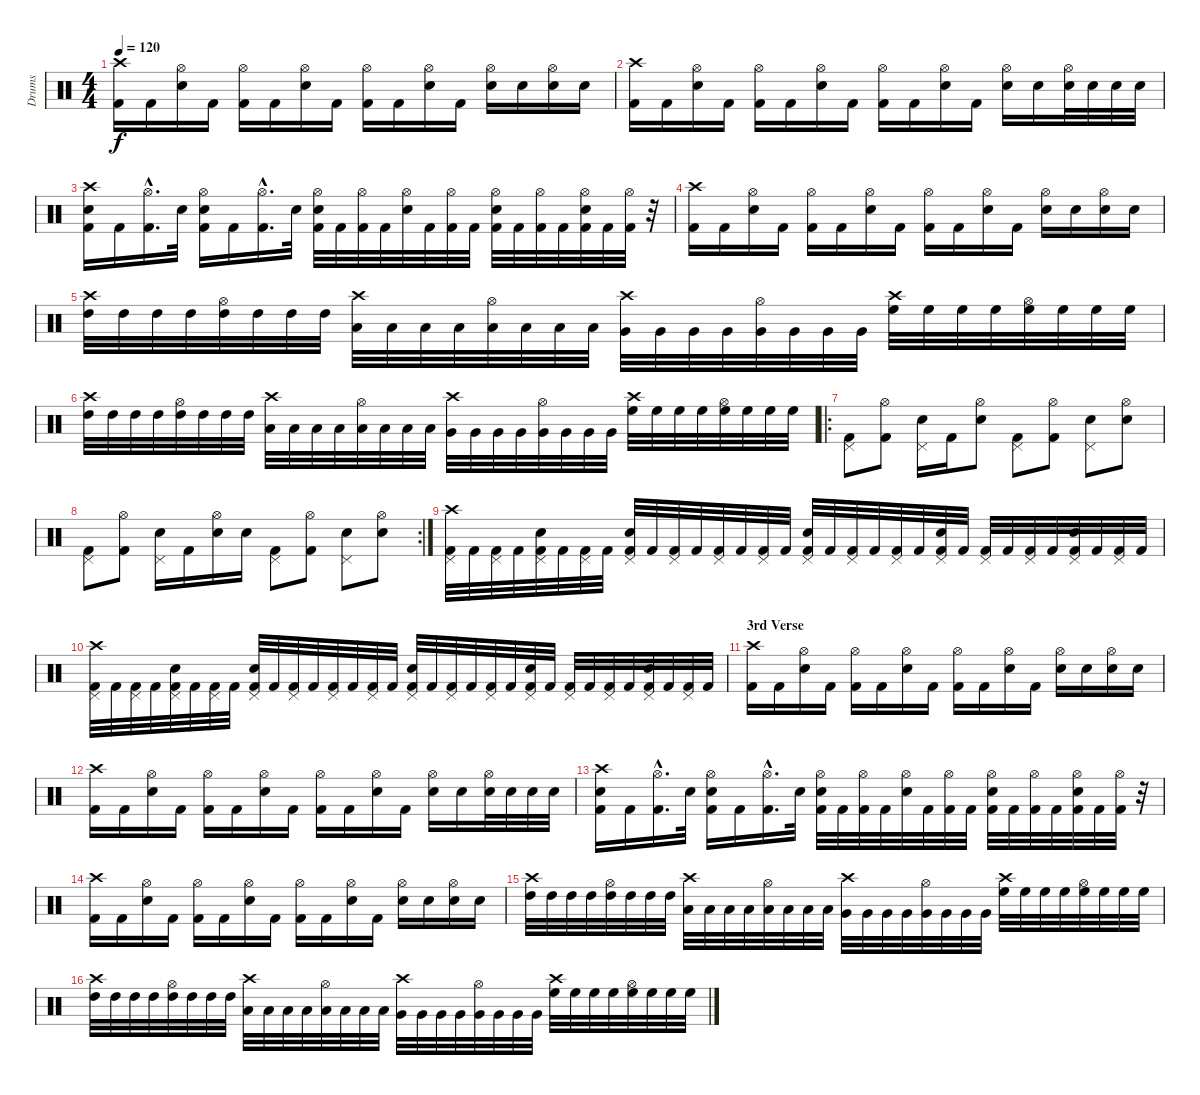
\track ("Drums" "Drums") {instrument percussion}
\staff {score}
\articulation defaults
\ts (4 4)
\tempo 120
\clef neutral
\ks c
("Crash high (hit)" "Kick (hit) 2").16{dy f} "Kick (hit) 2".16 ("Hi-Hat (open)" "Electric Snare (hit)").16 "Kick (hit) 2".16 ("Hi-Hat (open)" "Kick (hit) 2").16 "Kick (hit) 2".16 ("Hi-Hat (open)" "Electric Snare (hit)").16 "Kick (hit) 2".16 ("Hi-Hat (open)" "Kick (hit) 2").16 "Kick (hit) 2".16 ("Hi-Hat (open)" "Electric Snare (hit)").16 "Kick (hit) 2".16 ("Hi-Hat (open)" "Electric Snare (hit)").16 "Electric Snare (hit)".16 ("Hi-Hat (open)" "Electric Snare (hit)").16 "Electric Snare (hit)".16 |
("Crash high (hit)" "Kick (hit) 2").16 "Kick (hit) 2".16 ("Hi-Hat (open)" "Electric Snare (hit)").16 "Kick (hit) 2".16 ("Hi-Hat (open)" "Kick (hit) 2").16 "Kick (hit) 2".16 ("Hi-Hat (open)" "Electric Snare (hit)").16 "Kick (hit) 2".16 ("Hi-Hat (open)" "Kick (hit) 2").16 "Kick (hit) 2".16 ("Hi-Hat (open)" "Electric Snare (hit)").16 "Kick (hit) 2".16 ("Hi-Hat (open)" "Electric Snare (hit)").16 "Electric Snare (hit)".16 ("Hi-Hat (open)" "Electric Snare (hit)").32 "Electric Snare (hit)".32 "Electric Snare (hit)".32 "Electric Snare (hit)".32 |
("Crash high (hit)" "Electric Snare (hit)" "Kick (hit) 2").16 "Kick (hit) 2".16 ("Hi-Hat (open)"{hac} "Kick (hit) 2"{hac}).16{d} "Electric Snare (hit)".32 ("Hi-Hat (open)" "Electric Snare (hit)" "Kick (hit) 2").16 "Kick (hit) 2".16 ("Hi-Hat (open)"{hac} "Kick (hit) 2"{hac}).16{d} "Electric Snare (hit)".32 ("Hi-Hat (open)" "Electric Snare (hit)" "Kick (hit) 2").32 "Kick (hit) 2".32 ("Hi-Hat (open)" "Kick (hit) 2").32 "Kick (hit) 2".32 ("Hi-Hat (open)" "Electric Snare (hit)").32 "Kick (hit) 2".32 ("Hi-Hat (open)" "Kick (hit) 2").32 "Kick (hit) 2".32 ("Hi-Hat (open)" "Electric Snare (hit)" "Kick (hit) 2").32 "Kick (hit) 2".32 ("Hi-Hat (open)" "Kick (hit) 2").32 "Kick (hit) 2".32 ("Hi-Hat (open)" "Electric Snare (hit)" "Kick (hit) 2").32 "Kick (hit) 2".32 ("Hi-Hat (open)" "Kick (hit) 2").32 r.32 |
("Crash high (hit)" "Kick (hit) 2").16 "Kick (hit) 2".16 ("Hi-Hat (open)" "Electric Snare (hit)").16 "Kick (hit) 2".16 ("Hi-Hat (open)" "Kick (hit) 2").16 "Kick (hit) 2".16 ("Hi-Hat (open)" "Electric Snare (hit)").16 "Kick (hit) 2".16 ("Hi-Hat (open)" "Kick (hit) 2").16 "Kick (hit) 2".16 ("Hi-Hat (open)" "Electric Snare (hit)").16 "Kick (hit) 2".16 ("Hi-Hat (open)" "Electric Snare (hit)").16 "Electric Snare (hit)".16 ("Hi-Hat (open)" "Electric Snare (hit)").16 "Electric Snare (hit)".16 |
("Crash high (hit)" "High Tom (hit)").32 "High Tom (hit)".32 "High Tom (hit)".32 "High Tom (hit)".32 ("Hi-Hat (open)" "High Tom (hit)").32 "High Tom (hit)".32 "High Tom (hit)".32 "High Tom (hit)".32 ("Crash high (hit)" "Low Tom (hit)").32 "Low Tom (hit)".32 "Low Tom (hit)".32 "Low Tom (hit)".32 ("Hi-Hat (open)" "Low Tom (hit)").32 "Low Tom (hit)".32 "Low Tom (hit)".32 "Low Tom (hit)".32 ("Crash high (hit)" "Very Low Tom (hit)").32 "Very Low Tom (hit)".32 "Very Low Tom (hit)".32 "Very Low Tom (hit)".32 ("Hi-Hat (open)" "Very Low Tom (hit)").32 "Very Low Tom (hit)".32 "Very Low Tom (hit)".32 "Very Low Tom (hit)".32 ("Crash high (hit)" "High Floor Tom (hit)").32 "High Floor Tom (hit)".32 "High Floor Tom (hit)".32 "High Floor Tom (hit)".32 ("Hi-Hat (open)" "High Floor Tom (hit)").32 "High Floor Tom (hit)".32 "High Floor Tom (hit)".32 "High Floor Tom (hit)".32 |
("Crash high (hit)" "High Tom (hit)").32 "High Tom (hit)".32 "High Tom (hit)".32 "High Tom (hit)".32 ("Hi-Hat (open)" "High Tom (hit)").32 "High Tom (hit)".32 "High Tom (hit)".32 "High Tom (hit)".32 ("Crash high (hit)" "Low Tom (hit)").32 "Low Tom (hit)".32 "Low Tom (hit)".32 "Low Tom (hit)".32 ("Hi-Hat (open)" "Low Tom (hit)").32 "Low Tom (hit)".32 "Low Tom (hit)".32 "Low Tom (hit)".32 ("Crash high (hit)" "Very Low Tom (hit)").32 "Very Low Tom (hit)".32 "Very Low Tom (hit)".32 "Very Low Tom (hit)".32 ("Hi-Hat (open)" "Very Low Tom (hit)").32 "Very Low Tom (hit)".32 "Very Low Tom (hit)".32 "Very Low Tom (hit)".32 ("Crash high (hit)" "High Floor Tom (hit)").32 "High Floor Tom (hit)".32 "High Floor Tom (hit)".32 "High Floor Tom (hit)".32 ("Hi-Hat (open)" "High Floor Tom (hit)").32 "High Floor Tom (hit)".32 "High Floor Tom (hit)".32 "High Floor Tom (hit)".32 |
\ro
("Pedal Hi-Hat (hit)" "Kick (hit) 2").8 ("Hi-Hat (open)" "Kick (hit) 2").8 ("Pedal Hi-Hat (hit)" "Electric Snare (hit)").16 "Kick (hit) 2".16 ("Hi-Hat (open)" "Electric Snare (hit)").8 ("Pedal Hi-Hat (hit)" "Kick (hit) 2").8 ("Hi-Hat (open)" "Kick (hit) 2").8 ("Pedal Hi-Hat (hit)" "Electric Snare (hit)").8 ("Hi-Hat (open)" "Electric Snare (hit)").8 |
\rc 2
("Pedal Hi-Hat (hit)" "Kick (hit) 2").8 ("Hi-Hat (open)" "Kick (hit) 2").8 ("Pedal Hi-Hat (hit)" "Electric Snare (hit)").16 "Kick (hit) 2".16 ("Hi-Hat (open)" "Electric Snare (hit)").16 "Electric Snare (hit)".16 ("Pedal Hi-Hat (hit)" "Kick (hit) 2").8 ("Hi-Hat (open)" "Kick (hit) 2").8 ("Pedal Hi-Hat (hit)" "Electric Snare (hit)").8 ("Hi-Hat (open)" "Electric Snare (hit)").8 |
("Crash high (hit)" "Pedal Hi-Hat (hit)" "Kick (hit) 2").32 "Kick (hit) 2".32 ("Pedal Hi-Hat (hit)" "Kick (hit) 2").32 "Kick (hit) 2".32 ("Pedal Hi-Hat (hit)" "Electric Snare (hit)" "Kick (hit) 2").32 "Kick (hit) 2".32 ("Pedal Hi-Hat (hit)" "Kick (hit) 2").32 "Kick (hit) 2".32 ("Pedal Hi-Hat (hit)" "Electric Snare (hit)" "Kick (hit) 2").32 "Kick (hit) 2".32 ("Pedal Hi-Hat (hit)" "Kick (hit) 2").32 "Kick (hit) 2".32 ("Pedal Hi-Hat (hit)" "Kick (hit) 2").32 "Kick (hit) 2".32 ("Pedal Hi-Hat (hit)" "Kick (hit) 2").32 "Kick (hit) 2".32 ("Pedal Hi-Hat (hit)" "Electric Snare (hit)" "Kick (hit) 2").32 "Kick (hit) 2".32 ("Pedal Hi-Hat (hit)" "Kick (hit) 2").32 "Kick (hit) 2".32 ("Pedal Hi-Hat (hit)" "Kick (hit) 2").32 "Kick (hit) 2".32 ("Pedal Hi-Hat (hit)" "Electric Snare (hit)" "Kick (hit) 2").32 "Kick (hit) 2".32 ("Pedal Hi-Hat (hit)" "Kick (hit) 2").32 "Kick (hit) 2".32 ("Pedal Hi-Hat (hit)" "Kick (hit) 2").32 "Kick (hit) 2".32 ("Pedal Hi-Hat (hit)" "Electric Snare (hit)" "Kick (hit) 2").32 "Kick (hit) 2".32 ("Pedal Hi-Hat (hit)" "Kick (hit) 2").32 "Kick (hit) 2".32 |
("Crash high (hit)" "Pedal Hi-Hat (hit)" "Kick (hit) 2").32 "Kick (hit) 2".32 ("Pedal Hi-Hat (hit)" "Kick (hit) 2").32 "Kick (hit) 2".32 ("Pedal Hi-Hat (hit)" "Electric Snare (hit)" "Kick (hit) 2").32 "Kick (hit) 2".32 ("Pedal Hi-Hat (hit)" "Kick (hit) 2").32 "Kick (hit) 2".32 ("Pedal Hi-Hat (hit)" "Electric Snare (hit)" "Kick (hit) 2").32 "Kick (hit) 2".32 ("Pedal Hi-Hat (hit)" "Kick (hit) 2").32 "Kick (hit) 2".32 ("Pedal Hi-Hat (hit)" "Kick (hit) 2").32 "Kick (hit) 2".32 ("Pedal Hi-Hat (hit)" "Kick (hit) 2").32 "Kick (hit) 2".32 ("Pedal Hi-Hat (hit)" "Electric Snare (hit)" "Kick (hit) 2").32 "Kick (hit) 2".32 ("Pedal Hi-Hat (hit)" "Kick (hit) 2").32 "Kick (hit) 2".32 ("Pedal Hi-Hat (hit)" "Kick (hit) 2").32 "Kick (hit) 2".32 ("Pedal Hi-Hat (hit)" "Electric Snare (hit)" "Kick (hit) 2").32 "Kick (hit) 2".32 ("Pedal Hi-Hat (hit)" "Kick (hit) 2").32 "Kick (hit) 2".32 ("Pedal Hi-Hat (hit)" "Kick (hit) 2").32 "Kick (hit) 2".32 ("Pedal Hi-Hat (hit)" "Electric Snare (hit)" "Kick (hit) 2").32 "Kick (hit) 2".32 ("Pedal Hi-Hat (hit)" "Kick (hit) 2").32 "Kick (hit) 2".32 |
\section ("" "3rd Verse")
("Crash high (hit)" "Kick (hit) 2").16 "Kick (hit) 2".16 ("Hi-Hat (open)" "Electric Snare (hit)").16 "Kick (hit) 2".16 ("Hi-Hat (open)" "Kick (hit) 2").16 "Kick (hit) 2".16 ("Hi-Hat (open)" "Electric Snare (hit)").16 "Kick (hit) 2".16 ("Hi-Hat (open)" "Kick (hit) 2").16 "Kick (hit) 2".16 ("Hi-Hat (open)" "Electric Snare (hit)").16 "Kick (hit) 2".16 ("Hi-Hat (open)" "Electric Snare (hit)").16 "Electric Snare (hit)".16 ("Hi-Hat (open)" "Electric Snare (hit)").16 "Electric Snare (hit)".16 |
("Crash high (hit)" "Kick (hit) 2").16 "Kick (hit) 2".16 ("Hi-Hat (open)" "Electric Snare (hit)").16 "Kick (hit) 2".16 ("Hi-Hat (open)" "Kick (hit) 2").16 "Kick (hit) 2".16 ("Hi-Hat (open)" "Electric Snare (hit)").16 "Kick (hit) 2".16 ("Hi-Hat (open)" "Kick (hit) 2").16 "Kick (hit) 2".16 ("Hi-Hat (open)" "Electric Snare (hit)").16 "Kick (hit) 2".16 ("Hi-Hat (open)" "Electric Snare (hit)").16 "Electric Snare (hit)".16 ("Hi-Hat (open)" "Electric Snare (hit)").32 "Electric Snare (hit)".32 "Electric Snare (hit)".32 "Electric Snare (hit)".32 |
("Crash high (hit)" "Electric Snare (hit)" "Kick (hit) 2").16 "Kick (hit) 2".16 ("Hi-Hat (open)"{hac} "Kick (hit) 2"{hac}).16{d} "Electric Snare (hit)".32 ("Hi-Hat (open)" "Electric Snare (hit)" "Kick (hit) 2").16 "Kick (hit) 2".16 ("Hi-Hat (open)"{hac} "Kick (hit) 2"{hac}).16{d} "Electric Snare (hit)".32 ("Hi-Hat (open)" "Electric Snare (hit)" "Kick (hit) 2").32 "Kick (hit) 2".32 ("Hi-Hat (open)" "Kick (hit) 2").32 "Kick (hit) 2".32 ("Hi-Hat (open)" "Electric Snare (hit)").32 "Kick (hit) 2".32 ("Hi-Hat (open)" "Kick (hit) 2").32 "Kick (hit) 2".32 ("Hi-Hat (open)" "Electric Snare (hit)" "Kick (hit) 2").32 "Kick (hit) 2".32 ("Hi-Hat (open)" "Kick (hit) 2").32 "Kick (hit) 2".32 ("Hi-Hat (open)" "Electric Snare (hit)" "Kick (hit) 2").32 "Kick (hit) 2".32 ("Hi-Hat (open)" "Kick (hit) 2").32 r.32 |
("Crash high (hit)" "Kick (hit) 2").16 "Kick (hit) 2".16 ("Hi-Hat (open)" "Electric Snare (hit)").16 "Kick (hit) 2".16 ("Hi-Hat (open)" "Kick (hit) 2").16 "Kick (hit) 2".16 ("Hi-Hat (open)" "Electric Snare (hit)").16 "Kick (hit) 2".16 ("Hi-Hat (open)" "Kick (hit) 2").16 "Kick (hit) 2".16 ("Hi-Hat (open)" "Electric Snare (hit)").16 "Kick (hit) 2".16 ("Hi-Hat (open)" "Electric Snare (hit)").16 "Electric Snare (hit)".16 ("Hi-Hat (open)" "Electric Snare (hit)").16 "Electric Snare (hit)".16 |
("Crash high (hit)" "High Tom (hit)").32 "High Tom (hit)".32 "High Tom (hit)".32 "High Tom (hit)".32 ("Hi-Hat (open)" "High Tom (hit)").32 "High Tom (hit)".32 "High Tom (hit)".32 "High Tom (hit)".32 ("Crash high (hit)" "Low Tom (hit)").32 "Low Tom (hit)".32 "Low Tom (hit)".32 "Low Tom (hit)".32 ("Hi-Hat (open)" "Low Tom (hit)").32 "Low Tom (hit)".32 "Low Tom (hit)".32 "Low Tom (hit)".32 ("Crash high (hit)" "Very Low Tom (hit)").32 "Very Low Tom (hit)".32 "Very Low Tom (hit)".32 "Very Low Tom (hit)".32 ("Hi-Hat (open)" "Very Low Tom (hit)").32 "Very Low Tom (hit)".32 "Very Low Tom (hit)".32 "Very Low Tom (hit)".32 ("Crash high (hit)" "High Floor Tom (hit)").32 "High Floor Tom (hit)".32 "High Floor Tom (hit)".32 "High Floor Tom (hit)".32 ("Hi-Hat (open)" "High Floor Tom (hit)").32 "High Floor Tom (hit)".32 "High Floor Tom (hit)".32 "High Floor Tom (hit)".32 |
("Crash high (hit)" "High Tom (hit)").32 "High Tom (hit)".32 "High Tom (hit)".32 "High Tom (hit)".32 ("Hi-Hat (open)" "High Tom (hit)").32 "High Tom (hit)".32 "High Tom (hit)".32 "High Tom (hit)".32 ("Crash high (hit)" "Low Tom (hit)").32 "Low Tom (hit)".32 "Low Tom (hit)".32 "Low Tom (hit)".32 ("Hi-Hat (open)" "Low Tom (hit)").32 "Low Tom (hit)".32 "Low Tom (hit)".32 "Low Tom (hit)".32 ("Crash high (hit)" "Very Low Tom (hit)").32 "Very Low Tom (hit)".32 "Very Low Tom (hit)".32 "Very Low Tom (hit)".32 ("Hi-Hat (open)" "Very Low Tom (hit)").32 "Very Low Tom (hit)".32 "Very Low Tom (hit)".32 "Very Low Tom (hit)".32 ("Crash high (hit)" "High Floor Tom (hit)").32 "High Floor Tom (hit)".32 "High Floor Tom (hit)".32 "High Floor Tom (hit)".32 ("Hi-Hat (open)" "High Floor Tom (hit)").32 "High Floor Tom (hit)".32 "High Floor Tom (hit)".32 "High Floor Tom (hit)".32
